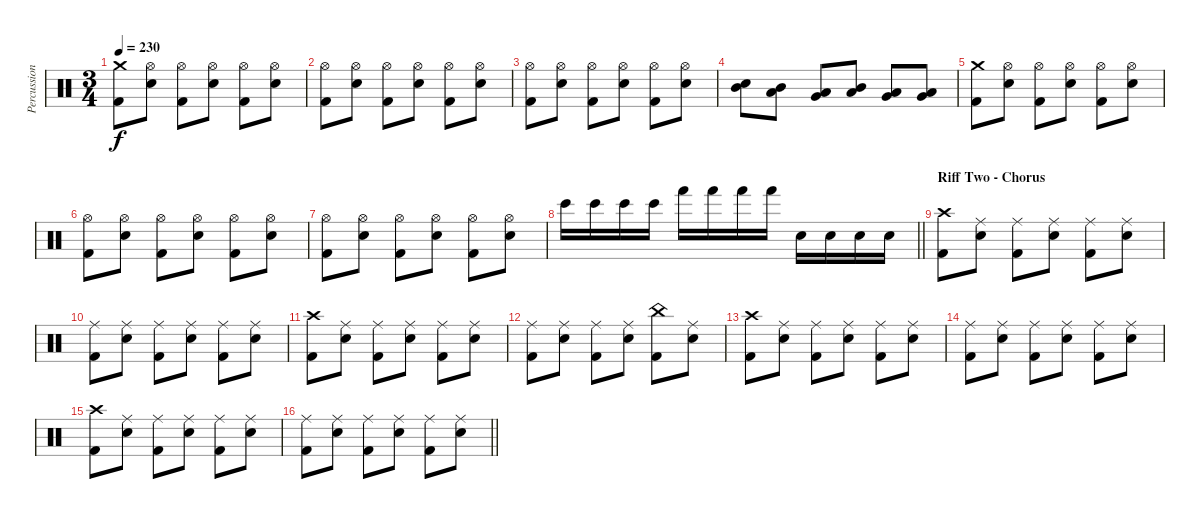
\track ("Percussion" "Percussion") {instrument percussion}
\staff {score}
\articulation defaults
\ts (3 4)
\tempo 230
\clef neutral
\ks c
("Crash medium (hit)" "Kick (hit) 2").8{dy f} ("Hi-Hat (open)" "Electric Snare (hit)").8 ("Hi-Hat (open)" "Kick (hit) 2").8 ("Hi-Hat (open)" "Electric Snare (hit)").8 ("Hi-Hat (open)" "Kick (hit) 2").8 ("Hi-Hat (open)" "Electric Snare (hit)").8 |
("Hi-Hat (open)" "Kick (hit) 2").8 ("Hi-Hat (open)" "Electric Snare (hit)").8 ("Hi-Hat (open)" "Kick (hit) 2").8 ("Hi-Hat (open)" "Electric Snare (hit)").8 ("Hi-Hat (open)" "Kick (hit) 2").8 ("Hi-Hat (open)" "Electric Snare (hit)").8 |
("Hi-Hat (open)" "Kick (hit) 2").8 ("Hi-Hat (open)" "Electric Snare (hit)").8 ("Hi-Hat (open)" "Kick (hit) 2").8 ("Hi-Hat (open)" "Electric Snare (hit)").8 ("Hi-Hat (open)" "Kick (hit) 2").8 ("Hi-Hat (open)" "Electric Snare (hit)").8 |
("Mid Tom (hit)" "Electric Snare (hit)").8 ("Low Tom (hit)" "Mid Tom (hit)").8 ("Very Low Tom (hit)" "Low Tom (hit)").8 ("Low Tom (hit)" "Mid Tom (hit)").8 ("Very Low Tom (hit)" "Low Tom (hit)").8 ("Very Low Tom (hit)" "Low Tom (hit)").8 |
("Crash medium (hit)" "Kick (hit) 2").8 ("Hi-Hat (open)" "Electric Snare (hit)").8 ("Hi-Hat (open)" "Kick (hit) 2").8 ("Hi-Hat (open)" "Electric Snare (hit)").8 ("Hi-Hat (open)" "Kick (hit) 2").8 ("Hi-Hat (open)" "Electric Snare (hit)").8 |
("Hi-Hat (open)" "Kick (hit) 2").8 ("Hi-Hat (open)" "Electric Snare (hit)").8 ("Hi-Hat (open)" "Kick (hit) 2").8 ("Hi-Hat (open)" "Electric Snare (hit)").8 ("Hi-Hat (open)" "Kick (hit) 2").8 ("Hi-Hat (open)" "Electric Snare (hit)").8 |
("Hi-Hat (open)" "Kick (hit) 2").8 ("Hi-Hat (open)" "Electric Snare (hit)").8 ("Hi-Hat (open)" "Kick (hit) 2").8 ("Hi-Hat (open)" "Electric Snare (hit)").8 ("Hi-Hat (open)" "Kick (hit) 2").8 ("Hi-Hat (open)" "Electric Snare (hit)").8 |
\barLineRight lightlight "Bongo High (hit)".16 "Bongo High (hit)".16 "Bongo High (hit)".16 "Bongo High (hit)".16 "Hand (hit)".16 "Hand (hit)".16 "Hand (hit)".16 "Hand (hit)".16 "Electric Snare (hit)".16 "Electric Snare (hit)".16 "Electric Snare (hit)".16 "Electric Snare (hit)".16
|
\section ("" "Riff Two - Chorus")
("Crash high (hit)" "Kick (hit) 2").8 ("Ride (middle)" "Electric Snare (hit)").8 ("Ride (middle)" "Kick (hit) 2").8 ("Ride (middle)" "Electric Snare (hit)").8 ("Ride (middle)" "Kick (hit) 2").8 ("Ride (middle)" "Electric Snare (hit)").8 |
("Ride (middle)" "Kick (hit) 2").8 ("Ride (middle)" "Electric Snare (hit)").8 ("Ride (middle)" "Kick (hit) 2").8 ("Ride (middle)" "Electric Snare (hit)").8 ("Ride (middle)" "Kick (hit) 2").8 ("Ride (middle)" "Electric Snare (hit)").8 |
("Crash high (hit)" "Kick (hit) 2").8 ("Ride (middle)" "Electric Snare (hit)").8 ("Ride (middle)" "Kick (hit) 2").8 ("Ride (middle)" "Electric Snare (hit)").8 ("Ride (middle)" "Kick (hit) 2").8 ("Ride (middle)" "Electric Snare (hit)").8 |
("Ride (middle)" "Kick (hit) 2").8 ("Ride (middle)" "Electric Snare (hit)").8 ("Ride (middle)" "Kick (hit) 2").8 ("Ride (middle)" "Electric Snare (hit)").8 ("China (hit)" "Kick (hit) 2").8 ("Ride (middle)" "Electric Snare (hit)").8 |
("Crash high (hit)" "Kick (hit) 2").8 ("Ride (middle)" "Electric Snare (hit)").8 ("Ride (middle)" "Kick (hit) 2").8 ("Ride (middle)" "Electric Snare (hit)").8 ("Ride (middle)" "Kick (hit) 2").8 ("Ride (middle)" "Electric Snare (hit)").8 |
("Ride (middle)" "Kick (hit) 2").8 ("Ride (middle)" "Electric Snare (hit)").8 ("Ride (middle)" "Kick (hit) 2").8 ("Ride (middle)" "Electric Snare (hit)").8 ("Ride (middle)" "Kick (hit) 2").8 ("Ride (middle)" "Electric Snare (hit)").8 |
("Crash high (hit)" "Kick (hit) 2").8 ("Ride (middle)" "Electric Snare (hit)").8 ("Ride (middle)" "Kick (hit) 2").8 ("Ride (middle)" "Electric Snare (hit)").8 ("Ride (middle)" "Kick (hit) 2").8 ("Ride (middle)" "Electric Snare (hit)").8 |
\barLineRight lightlight
("Ride (middle)" "Kick (hit) 2").8 ("Ride (middle)" "Electric Snare (hit)").8 ("Ride (middle)" "Kick (hit) 2").8 ("Ride (middle)" "Electric Snare (hit)").8 ("Ride (middle)" "Kick (hit) 2").8 ("Ride (middle)" "Electric Snare (hit)").8
